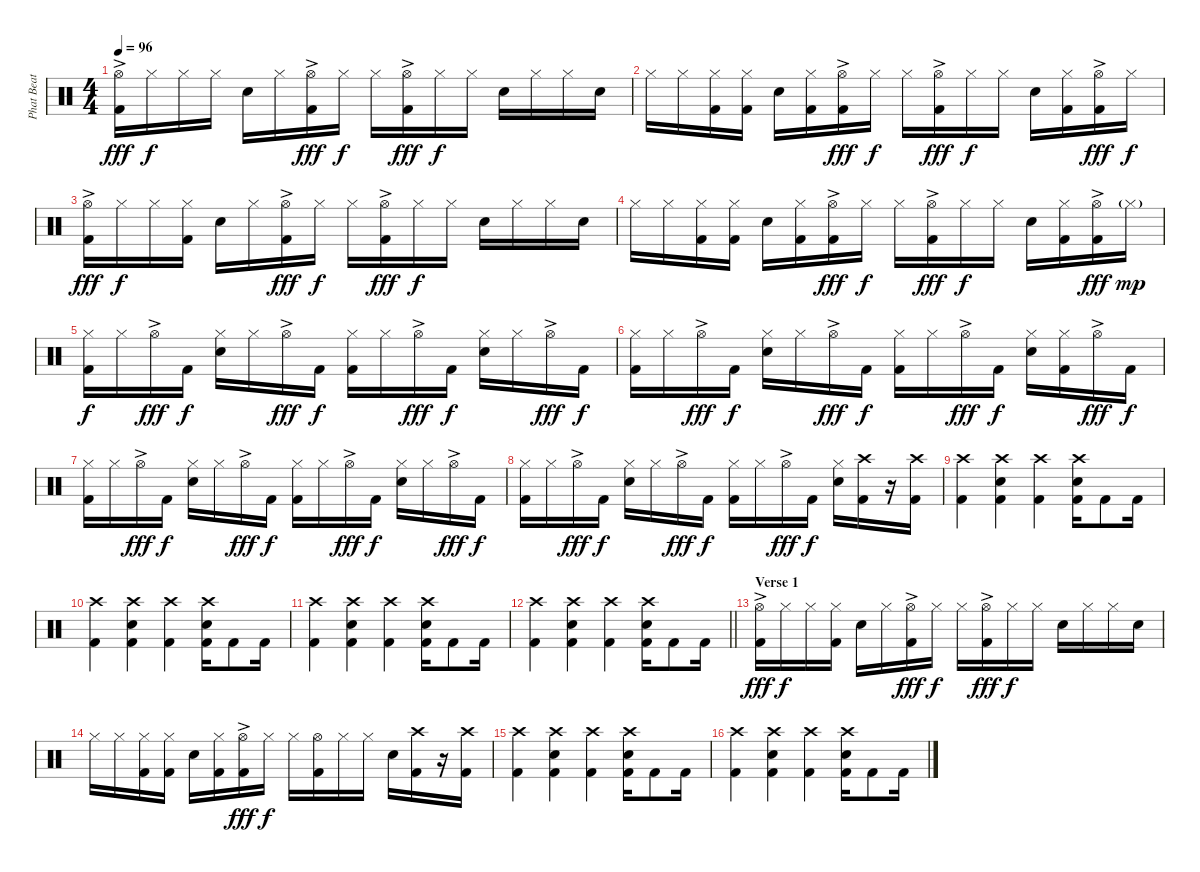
\track ("Phat Beat" "Phat Beat") {instrument percussion}
\staff {score}
\articulation defaults
\ts (4 4)
\tempo 96
\clef neutral
\ks c
("Hi-Hat (open)"{ac} "Kick (hit) 2").16{dy fff} "Hi-Hat (closed)".16{dy f} "Hi-Hat (closed)".16 "Hi-Hat (closed)".16 "Snare (hit) 2".16 "Hi-Hat (closed)".16 ("Hi-Hat (open)"{ac} "Kick (hit) 2").16{dy fff} "Hi-Hat (closed)".16{dy f} "Hi-Hat (closed)".16 ("Hi-Hat (open)"{ac} "Kick (hit) 2").16{dy fff} "Hi-Hat (closed)".16{dy f} "Hi-Hat (closed)".16 "Snare (hit) 2".16 "Hi-Hat (closed)".16 "Hi-Hat (closed)".16 "Snare (hit) 2".16 |
"Hi-Hat (closed)".16 "Hi-Hat (closed)".16 ("Hi-Hat (closed)" "Kick (hit) 2").16 ("Hi-Hat (closed)" "Kick (hit) 2").16 "Snare (hit) 2".16 ("Hi-Hat (closed)" "Kick (hit) 2").16 ("Hi-Hat (open)"{ac} "Kick (hit) 2").16{dy fff} "Hi-Hat (closed)".16{dy f} "Hi-Hat (closed)".16 ("Hi-Hat (open)"{ac} "Kick (hit) 2").16{dy fff} "Hi-Hat (closed)".16{dy f} "Hi-Hat (closed)".16 "Snare (hit) 2".16 ("Hi-Hat (closed)" "Kick (hit) 2").16 ("Hi-Hat (open)"{ac} "Kick (hit) 2").16{dy fff} "Hi-Hat (closed)".16{dy f} |
("Hi-Hat (open)"{ac} "Kick (hit) 2").16{dy fff} "Hi-Hat (closed)".16{dy f} "Hi-Hat (closed)".16 ("Hi-Hat (closed)" "Kick (hit) 2").16 "Snare (hit) 2".16 "Hi-Hat (closed)".16 ("Hi-Hat (open)"{ac} "Kick (hit) 2").16{dy fff} "Hi-Hat (closed)".16{dy f} "Hi-Hat (closed)".16 ("Hi-Hat (open)"{ac} "Kick (hit) 2").16{dy fff} "Hi-Hat (closed)".16{dy f} "Hi-Hat (closed)".16 "Snare (hit) 2".16 "Hi-Hat (closed)".16 "Hi-Hat (closed)".16 "Snare (hit) 2".16 |
"Hi-Hat (closed)".16 "Hi-Hat (closed)".16 ("Hi-Hat (closed)" "Kick (hit) 2").16 ("Hi-Hat (closed)" "Kick (hit) 2").16 "Snare (hit) 2".16 ("Hi-Hat (closed)" "Kick (hit) 2").16 ("Hi-Hat (open)"{ac} "Kick (hit) 2").16{dy fff} "Hi-Hat (closed)".16{dy f} "Hi-Hat (closed)".16 ("Hi-Hat (open)"{ac} "Kick (hit) 2").16{dy fff} "Hi-Hat (closed)".16{dy f} "Hi-Hat (closed)".16 "Snare (hit) 2".16 ("Hi-Hat (closed)" "Kick (hit) 2").16 ("Hi-Hat (open)"{ac} "Kick (hit) 2").16{dy fff} "Hi-Hat (closed)"{g}.16{dy mp} |
("Hi-Hat (closed)" "Kick (hit) 2").16{dy f} "Hi-Hat (closed)".16 "Hi-Hat (open)"{ac}.16{dy fff} "Kick (hit) 2".16{dy f} ("Hi-Hat (closed)" "Snare (hit) 2").16 "Hi-Hat (closed)".16 "Hi-Hat (open)"{ac}.16{dy fff} "Kick (hit) 2".16{dy f} ("Hi-Hat (closed)" "Kick (hit) 2").16 "Hi-Hat (closed)".16 "Hi-Hat (open)"{ac}.16{dy fff} "Kick (hit) 2".16{dy f} ("Hi-Hat (closed)" "Snare (hit) 2").16 "Hi-Hat (closed)".16 "Hi-Hat (open)"{ac}.16{dy fff} "Kick (hit) 2".16{dy f} |
("Hi-Hat (closed)" "Kick (hit) 2").16 "Hi-Hat (closed)".16 "Hi-Hat (open)"{ac}.16{dy fff} "Kick (hit) 2".16{dy f} ("Hi-Hat (closed)" "Snare (hit) 2").16 "Hi-Hat (closed)".16 "Hi-Hat (open)"{ac}.16{dy fff} "Kick (hit) 2".16{dy f} ("Hi-Hat (closed)" "Kick (hit) 2").16 "Hi-Hat (closed)".16 "Hi-Hat (open)"{ac}.16{dy fff} "Kick (hit) 2".16{dy f} ("Hi-Hat (closed)" "Snare (hit) 2").16 ("Hi-Hat (closed)" "Kick (hit) 2").16 "Hi-Hat (open)"{ac}.16{dy fff} "Kick (hit) 2".16{dy f} |
("Hi-Hat (closed)" "Kick (hit) 2").16 "Hi-Hat (closed)".16 "Hi-Hat (open)"{ac}.16{dy fff} "Kick (hit) 2".16{dy f} ("Hi-Hat (closed)" "Snare (hit) 2").16 "Hi-Hat (closed)".16 "Hi-Hat (open)"{ac}.16{dy fff} "Kick (hit) 2".16{dy f} ("Hi-Hat (closed)" "Kick (hit) 2").16 "Hi-Hat (closed)".16 "Hi-Hat (open)"{ac}.16{dy fff} "Kick (hit) 2".16{dy f} ("Hi-Hat (closed)" "Snare (hit) 2").16 "Hi-Hat (closed)".16 "Hi-Hat (open)"{ac}.16{dy fff} "Kick (hit) 2".16{dy f} |
("Hi-Hat (closed)" "Kick (hit) 2").16 "Hi-Hat (closed)".16 "Hi-Hat (open)"{ac}.16{dy fff} "Kick (hit) 2".16{dy f} ("Hi-Hat (closed)" "Snare (hit) 2").16 "Hi-Hat (closed)".16 "Hi-Hat (open)"{ac}.16{dy fff} "Kick (hit) 2".16{dy f} ("Hi-Hat (closed)" "Kick (hit) 2").16 "Hi-Hat (closed)".16 "Hi-Hat (open)"{ac}.16{dy fff} "Kick (hit) 2".16{dy f} ("Hi-Hat (closed)" "Snare (hit) 2").16 ("Crash high (hit)" "Kick (hit) 2").16 r.16 ("Crash high (hit)" "Kick (hit) 2").16 |
("Crash high (hit)" "Kick (hit) 2").4 ("Crash high (hit)" "Snare (hit) 2" "Kick (hit) 2").4 ("Crash high (hit)" "Kick (hit) 2").4 ("Crash high (hit)" "Snare (hit) 2" "Kick (hit) 2").16 "Kick (hit) 2".8 "Kick (hit) 2".16 |
("Crash high (hit)" "Kick (hit) 2").4 ("Crash high (hit)" "Snare (hit) 2" "Kick (hit) 2").4 ("Crash high (hit)" "Kick (hit) 2").4 ("Crash high (hit)" "Snare (hit) 2" "Kick (hit) 2").16 "Kick (hit) 2".8 "Kick (hit) 2".16 |
("Crash high (hit)" "Kick (hit) 2").4 ("Crash high (hit)" "Snare (hit) 2" "Kick (hit) 2").4 ("Crash high (hit)" "Kick (hit) 2").4 ("Crash high (hit)" "Snare (hit) 2" "Kick (hit) 2").16 "Kick (hit) 2".8 "Kick (hit) 2".16 |
\barLineRight lightlight
("Crash high (hit)" "Kick (hit) 2").4 ("Crash high (hit)" "Snare (hit) 2" "Kick (hit) 2").4 ("Crash high (hit)" "Kick (hit) 2").4 ("Crash high (hit)" "Snare (hit) 2" "Kick (hit) 2").16 "Kick (hit) 2".8 "Kick (hit) 2".16 |
\section ("" "Verse 1")
("Hi-Hat (open)"{ac} "Kick (hit) 2").16{dy fff} "Hi-Hat (closed)".16{dy f} "Hi-Hat (closed)".16 ("Hi-Hat (closed)" "Kick (hit) 2").16 "Snare (hit) 2".16 "Hi-Hat (closed)".16 ("Hi-Hat (open)"{ac} "Kick (hit) 2").16{dy fff} "Hi-Hat (closed)".16{dy f} "Hi-Hat (closed)".16 ("Hi-Hat (open)"{ac} "Kick (hit) 2").16{dy fff} "Hi-Hat (closed)".16{dy f} "Hi-Hat (closed)".16 "Snare (hit) 2".16 "Hi-Hat (closed)".16 "Hi-Hat (closed)".16 "Snare (hit) 2".16 |
"Hi-Hat (closed)".16 "Hi-Hat (closed)".16 ("Hi-Hat (closed)" "Kick (hit) 2").16 ("Hi-Hat (closed)" "Kick (hit) 2").16 "Snare (hit) 2".16 ("Hi-Hat (closed)" "Kick (hit) 2").16 ("Hi-Hat (open)"{ac} "Kick (hit) 2").16{dy fff} "Hi-Hat (closed)".16{dy f} "Hi-Hat (closed)".16 ("Hi-Hat (open)" "Kick (hit) 2").16 "Hi-Hat (closed)".16 "Hi-Hat (closed)".16 "Snare (hit) 2".16 ("Crash high (hit)" "Kick (hit) 2").16 r.16 ("Crash high (hit)" "Kick (hit) 2").16 |
("Crash high (hit)" "Kick (hit) 2").4 ("Crash high (hit)" "Snare (hit) 2" "Kick (hit) 2").4 ("Crash high (hit)" "Kick (hit) 2").4 ("Crash high (hit)" "Snare (hit) 2" "Kick (hit) 2").16 "Kick (hit) 2".8 "Kick (hit) 2".16 |
("Crash high (hit)" "Kick (hit) 2").4 ("Crash high (hit)" "Snare (hit) 2" "Kick (hit) 2").4 ("Crash high (hit)" "Kick (hit) 2").4 ("Crash high (hit)" "Snare (hit) 2" "Kick (hit) 2").16 "Kick (hit) 2".8 "Kick (hit) 2".16
